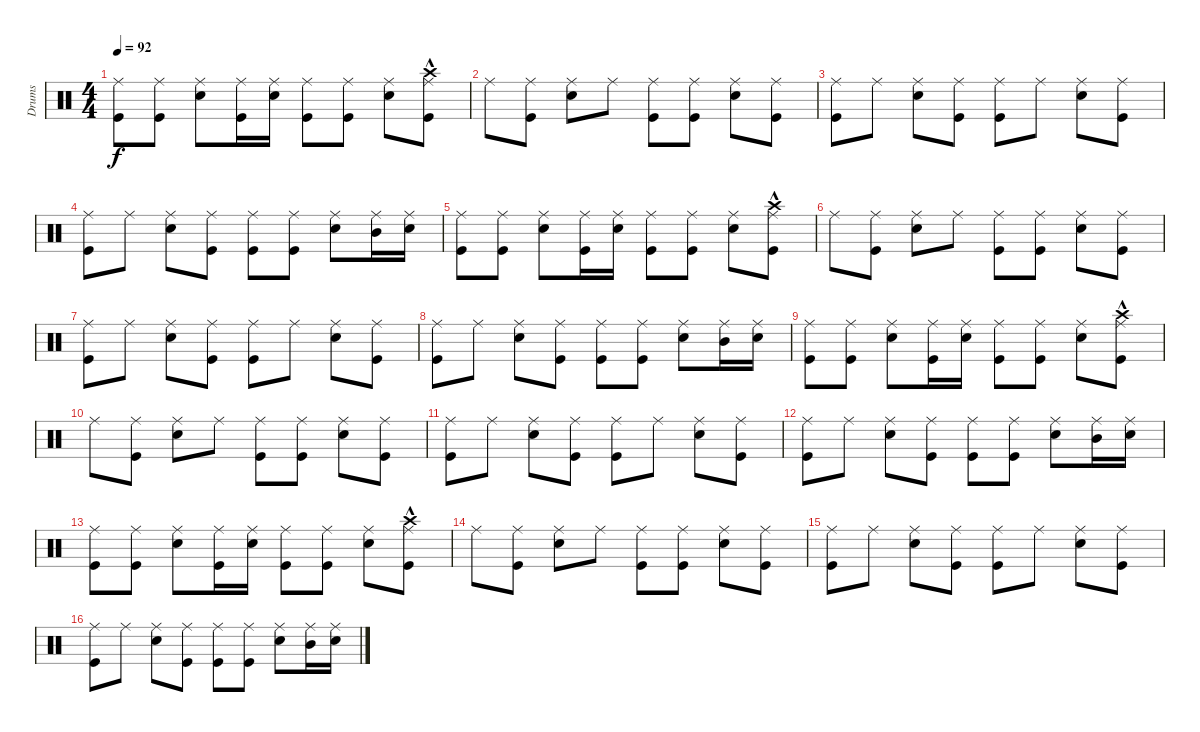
\track ("Drums" "Drums") {instrument percussion}
\staff {score}
\articulation defaults
\ts (4 4)
\tempo 92
\clef neutral
\ks c
("Kick (hit)" "Ride (middle)").8{dy f} ("Kick (hit)" "Ride (middle)").8 ("Snare (hit) 2" "Ride (middle)").8 ("Kick (hit)" "Ride (middle)").16 ("Snare (hit) 2" "Ride (middle)").16 ("Kick (hit)" "Ride (middle)").8 ("Kick (hit)" "Ride (middle)").8 ("Snare (hit) 2" "Ride (middle)").8 ("Crash high (hit)"{hac} "Kick (hit)" "Ride (middle)").8 |
"Ride (middle)".8 ("Kick (hit)" "Ride (middle)").8 ("Snare (hit) 2" "Ride (middle)").8 "Ride (middle)".8 ("Kick (hit)" "Ride (middle)").8 ("Kick (hit)" "Ride (middle)").8 ("Snare (hit) 2" "Ride (middle)").8 ("Kick (hit)" "Ride (middle)").8 |
("Kick (hit)" "Ride (middle)").8 "Ride (middle)".8 ("Snare (hit) 2" "Ride (middle)").8 ("Kick (hit)" "Ride (middle)").8 ("Kick (hit)" "Ride (middle)").8 "Ride (middle)".8 ("Snare (hit) 2" "Ride (middle)").8 ("Kick (hit)" "Ride (middle)").8 |
("Kick (hit)" "Ride (middle)").8 "Ride (middle)".8 ("Snare (hit) 2" "Ride (middle)").8 ("Kick (hit)" "Ride (middle)").8 ("Kick (hit)" "Ride (middle)").8 ("Kick (hit)" "Ride (middle)").8 ("Snare (hit) 2" "Ride (middle)").8 ("Mid Tom (hit)" "Ride (middle)").16 ("Snare (hit) 2" "Ride (middle)").16 |
("Kick (hit)" "Ride (middle)").8 ("Kick (hit)" "Ride (middle)").8 ("Snare (hit) 2" "Ride (middle)").8 ("Kick (hit)" "Ride (middle)").16 ("Snare (hit) 2" "Ride (middle)").16 ("Kick (hit)" "Ride (middle)").8 ("Kick (hit)" "Ride (middle)").8 ("Snare (hit) 2" "Ride (middle)").8 ("Crash high (hit)"{hac} "Kick (hit)" "Ride (middle)").8 |
"Ride (middle)".8 ("Kick (hit)" "Ride (middle)").8 ("Snare (hit) 2" "Ride (middle)").8 "Ride (middle)".8 ("Kick (hit)" "Ride (middle)").8 ("Kick (hit)" "Ride (middle)").8 ("Snare (hit) 2" "Ride (middle)").8 ("Kick (hit)" "Ride (middle)").8 |
("Kick (hit)" "Ride (middle)").8 "Ride (middle)".8 ("Snare (hit) 2" "Ride (middle)").8 ("Kick (hit)" "Ride (middle)").8 ("Kick (hit)" "Ride (middle)").8 "Ride (middle)".8 ("Snare (hit) 2" "Ride (middle)").8 ("Kick (hit)" "Ride (middle)").8 |
("Kick (hit)" "Ride (middle)").8 "Ride (middle)".8 ("Snare (hit) 2" "Ride (middle)").8 ("Kick (hit)" "Ride (middle)").8 ("Kick (hit)" "Ride (middle)").8 ("Kick (hit)" "Ride (middle)").8 ("Snare (hit) 2" "Ride (middle)").8 ("Mid Tom (hit)" "Ride (middle)").16 ("Snare (hit) 2" "Ride (middle)").16 |
("Kick (hit)" "Ride (middle)").8 ("Kick (hit)" "Ride (middle)").8 ("Snare (hit) 2" "Ride (middle)").8 ("Kick (hit)" "Ride (middle)").16 ("Snare (hit) 2" "Ride (middle)").16 ("Kick (hit)" "Ride (middle)").8 ("Kick (hit)" "Ride (middle)").8 ("Snare (hit) 2" "Ride (middle)").8 ("Crash high (hit)"{hac} "Kick (hit)" "Ride (middle)").8 |
"Ride (middle)".8 ("Kick (hit)" "Ride (middle)").8 ("Snare (hit) 2" "Ride (middle)").8 "Ride (middle)".8 ("Kick (hit)" "Ride (middle)").8 ("Kick (hit)" "Ride (middle)").8 ("Snare (hit) 2" "Ride (middle)").8 ("Kick (hit)" "Ride (middle)").8 |
("Kick (hit)" "Ride (middle)").8 "Ride (middle)".8 ("Snare (hit) 2" "Ride (middle)").8 ("Kick (hit)" "Ride (middle)").8 ("Kick (hit)" "Ride (middle)").8 "Ride (middle)".8 ("Snare (hit) 2" "Ride (middle)").8 ("Kick (hit)" "Ride (middle)").8 |
("Kick (hit)" "Ride (middle)").8 "Ride (middle)".8 ("Snare (hit) 2" "Ride (middle)").8 ("Kick (hit)" "Ride (middle)").8 ("Kick (hit)" "Ride (middle)").8 ("Kick (hit)" "Ride (middle)").8 ("Snare (hit) 2" "Ride (middle)").8 ("Mid Tom (hit)" "Ride (middle)").16 ("Snare (hit) 2" "Ride (middle)").16 |
("Kick (hit)" "Ride (middle)").8 ("Kick (hit)" "Ride (middle)").8 ("Snare (hit) 2" "Ride (middle)").8 ("Kick (hit)" "Ride (middle)").16 ("Snare (hit) 2" "Ride (middle)").16 ("Kick (hit)" "Ride (middle)").8 ("Kick (hit)" "Ride (middle)").8 ("Snare (hit) 2" "Ride (middle)").8 ("Crash high (hit)"{hac} "Kick (hit)" "Ride (middle)").8 |
"Ride (middle)".8 ("Kick (hit)" "Ride (middle)").8 ("Snare (hit) 2" "Ride (middle)").8 "Ride (middle)".8 ("Kick (hit)" "Ride (middle)").8 ("Kick (hit)" "Ride (middle)").8 ("Snare (hit) 2" "Ride (middle)").8 ("Kick (hit)" "Ride (middle)").8 |
("Kick (hit)" "Ride (middle)").8 "Ride (middle)".8 ("Snare (hit) 2" "Ride (middle)").8 ("Kick (hit)" "Ride (middle)").8 ("Kick (hit)" "Ride (middle)").8 "Ride (middle)".8 ("Snare (hit) 2" "Ride (middle)").8 ("Kick (hit)" "Ride (middle)").8 |
("Kick (hit)" "Ride (middle)").8 "Ride (middle)".8 ("Snare (hit) 2" "Ride (middle)").8 ("Kick (hit)" "Ride (middle)").8 ("Kick (hit)" "Ride (middle)").8 ("Kick (hit)" "Ride (middle)").8 ("Snare (hit) 2" "Ride (middle)").8 ("Mid Tom (hit)" "Ride (middle)").16 ("Snare (hit) 2" "Ride (middle)").16
